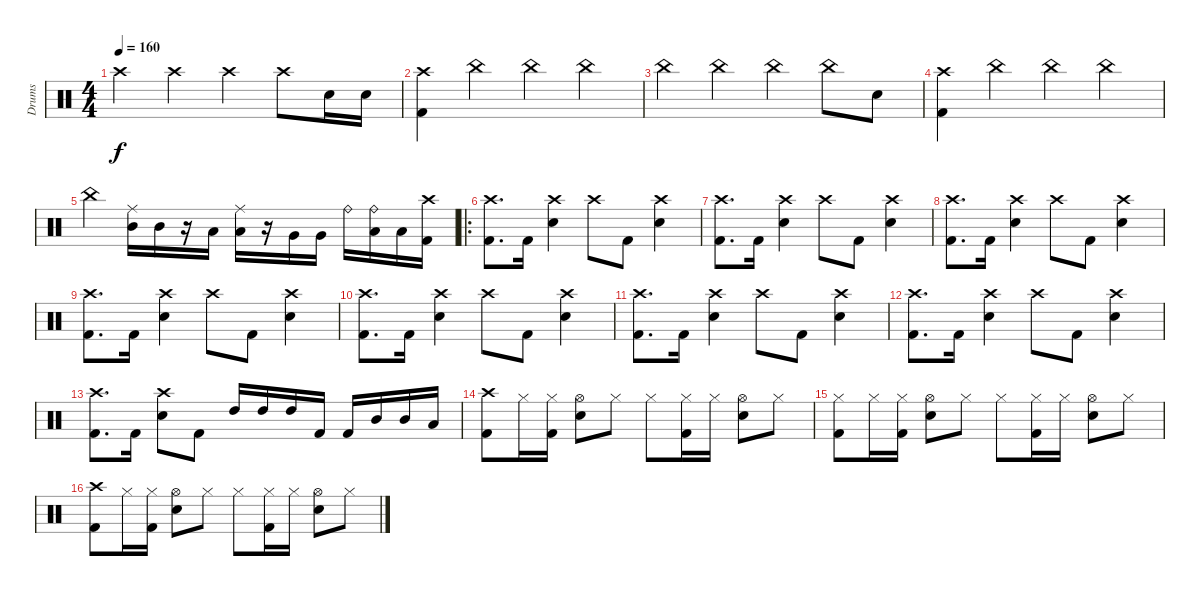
\track ("Drums" "Drums") {instrument percussion}
\staff {score}
\articulation defaults
\ts (4 4)
\tempo 160
\clef neutral
\ks c "Crash high (hit)".4{dy f} "Crash high (hit)".4 "Crash high (hit)".4 "Crash high (hit)".8 "Snare (hit) 2".16 "Snare (hit) 2".16
|
("Crash high (hit)" "Kick (hit) 2").4 "China (hit)".4 "China (hit)".4 "China (hit)".4 |
"China (hit)".4 "China (hit)".4 "China (hit)".4 "China (hit)".8 "Snare (hit) 2".8 |
("Crash high (hit)" "Kick (hit) 2").4 "China (hit)".4 "China (hit)".4 "China (hit)".4 |
"China (hit)".4 ("Mid Tom (hit)" "Ride (middle)").16 "Mid Tom (hit)".16 r.16 "Low Tom (hit)".16 ("Low Tom (hit)" "Ride (middle)").16 r.16 "Very Low Tom (hit)".16 "Very Low Tom (hit)".16 "Ride (bell)".16 ("Low Floor Tom (hit)" "Ride (bell)").16 "Low Floor Tom (hit)".16 ("Crash high (hit)" "Kick (hit) 2").16 |
\ro
("Crash high (hit)" "Kick (hit) 2").8{d} "Kick (hit) 2".16 ("Crash high (hit)" "Snare (hit) 2").4 "Crash high (hit)".8 "Kick (hit) 2".8 ("Crash high (hit)" "Snare (hit) 2").4 |
("Crash high (hit)" "Kick (hit) 2").8{d} "Kick (hit) 2".16 ("Crash high (hit)" "Snare (hit) 2").4 "Crash high (hit)".8 "Kick (hit) 2".8 ("Crash high (hit)" "Snare (hit) 2").4 |
("Crash high (hit)" "Kick (hit) 2").8{d} "Kick (hit) 2".16 ("Crash high (hit)" "Snare (hit) 2").4 "Crash high (hit)".8 "Kick (hit) 2".8 ("Crash high (hit)" "Snare (hit) 2").4 |
("Crash high (hit)" "Kick (hit) 2").8{d} "Kick (hit) 2".16 ("Crash high (hit)" "Snare (hit) 2").4 "Crash high (hit)".8 "Kick (hit) 2".8 ("Crash high (hit)" "Snare (hit) 2").4 |
("Crash high (hit)" "Kick (hit) 2").8{d} "Kick (hit) 2".16 ("Crash high (hit)" "Snare (hit) 2").4 "Crash high (hit)".8 "Kick (hit) 2".8 ("Crash high (hit)" "Snare (hit) 2").4 |
("Crash high (hit)" "Kick (hit) 2").8{d} "Kick (hit) 2".16 ("Crash high (hit)" "Snare (hit) 2").4 "Crash high (hit)".8 "Kick (hit) 2".8 ("Crash high (hit)" "Snare (hit) 2").4 |
("Crash high (hit)" "Kick (hit) 2").8{d} "Kick (hit) 2".16 ("Crash high (hit)" "Snare (hit) 2").4 "Crash high (hit)".8 "Kick (hit) 2".8 ("Crash high (hit)" "Snare (hit) 2").4 |
("Crash high (hit)" "Kick (hit) 2").8{d} "Kick (hit) 2".16 ("Crash high (hit)" "Snare (hit) 2").8 "Kick (hit) 2".8 "High Tom (hit)".16 "High Tom (hit)".16 "High Tom (hit)".16 "Kick (hit) 2".16 "Kick (hit) 2".16 "Mid Tom (hit)".16 "Mid Tom (hit)".16 "Low Tom (hit)".16 |
("Crash high (hit)" "Kick (hit) 2").8 "Hi-Hat (closed)".16 ("Hi-Hat (closed)" "Kick (hit) 2").16 ("Hi-Hat (open)" "Snare (hit) 2").8 "Hi-Hat (closed)".8 "Hi-Hat (closed)".8 ("Hi-Hat (closed)" "Kick (hit) 2").16 "Hi-Hat (closed)".16 ("Hi-Hat (open)" "Snare (hit) 2").8 "Hi-Hat (closed)".8 |
("Hi-Hat (closed)" "Kick (hit) 2").8 "Hi-Hat (closed)".16 ("Hi-Hat (closed)" "Kick (hit) 2").16 ("Hi-Hat (open)" "Snare (hit) 2").8 "Hi-Hat (closed)".8 "Hi-Hat (closed)".8 ("Hi-Hat (closed)" "Kick (hit) 2").16 "Hi-Hat (closed)".16 ("Hi-Hat (open)" "Snare (hit) 2").8 "Hi-Hat (closed)".8 |
("Crash high (hit)" "Kick (hit) 2").8 "Hi-Hat (closed)".16 ("Hi-Hat (closed)" "Kick (hit) 2").16 ("Hi-Hat (open)" "Snare (hit) 2").8 "Hi-Hat (closed)".8 "Hi-Hat (closed)".8 ("Hi-Hat (closed)" "Kick (hit) 2").16 "Hi-Hat (closed)".16 ("Hi-Hat (open)" "Snare (hit) 2").8 "Hi-Hat (closed)".8
